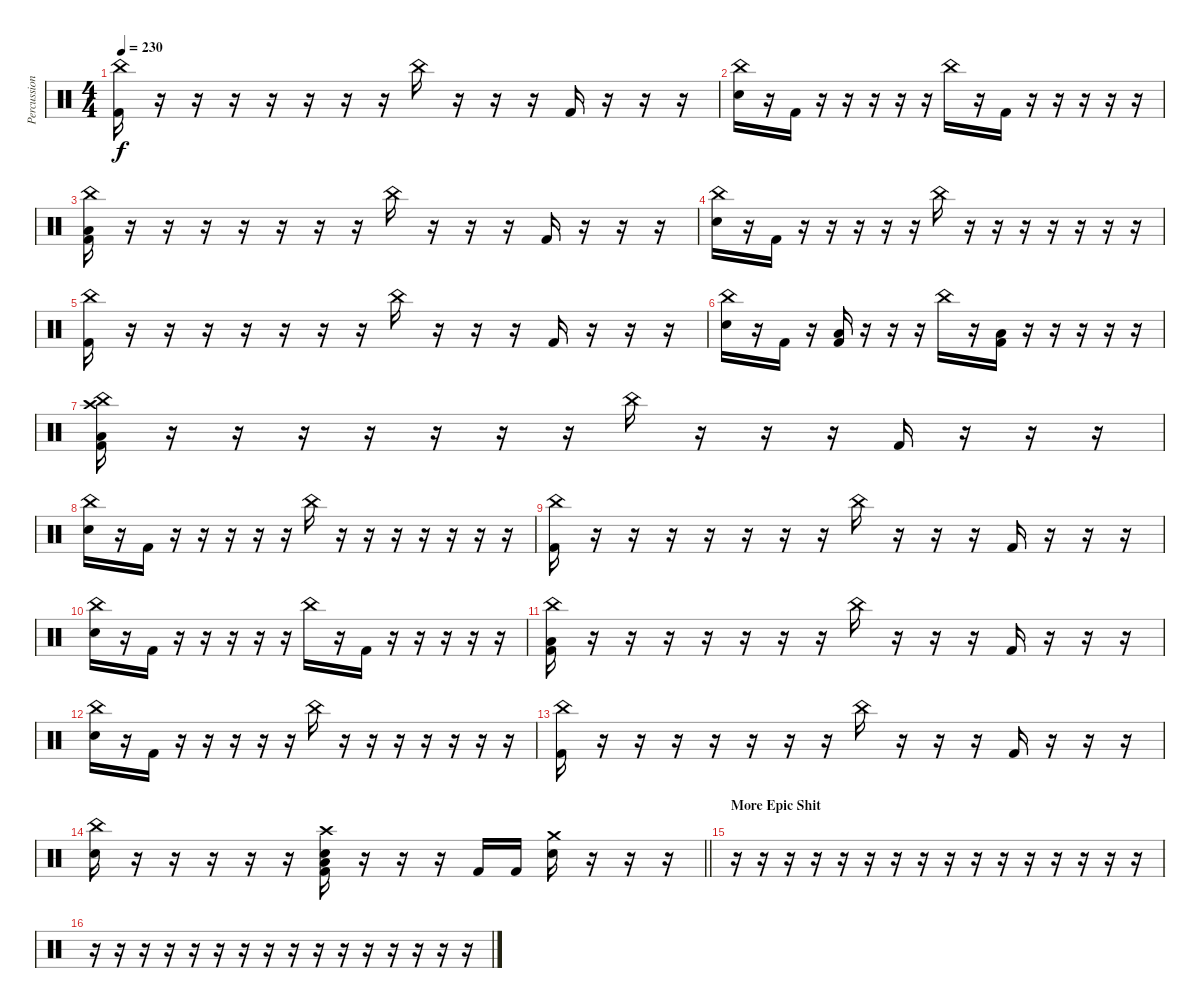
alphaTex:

\track ("Percussion" "Percussion") {instrument percussion}
\staff {score}
\articulation defaults
\ts (4 4)
\tempo 230
\clef neutral
\ks c
("China (hit)" "Kick (hit) 2").16{dy f} r.16 r.16 r.16 r.16 r.16 r.16 r.16 "China (hit)".16 r.16 r.16 r.16 "Kick (hit) 2".16 r.16 r.16 r.16 |
("China (hit)" "Electric Snare (hit)").16 r.16 "Kick (hit) 2".16 r.16 r.16 r.16 r.16 r.16 "China (hit)".16 r.16 "Kick (hit) 2".16 r.16 r.16 r.16 r.16 r.16 |
("China (hit)" "Low Floor Tom (hit)" "Kick (hit) 2").16 r.16 r.16 r.16 r.16 r.16 r.16 r.16 "China (hit)".16 r.16 r.16 r.16 "Kick (hit) 2".16 r.16 r.16 r.16 |
("China (hit)" "Electric Snare (hit)").16 r.16 "Kick (hit) 2".16 r.16 r.16 r.16 r.16 r.16 "China (hit)".16 r.16 r.16 r.16 r.16 r.16 r.16 r.16 |
("China (hit)" "Kick (hit) 2").16 r.16 r.16 r.16 r.16 r.16 r.16 r.16 "China (hit)".16 r.16 r.16 r.16 "Kick (hit) 2".16 r.16 r.16 r.16 |
("China (hit)" "Electric Snare (hit)").16 r.16 "Kick (hit) 2".16 r.16 ("Low Floor Tom (hit)" "Kick (hit) 2").16 r.16 r.16 r.16 "China (hit)".16 r.16 ("Low Floor Tom (hit)" "Kick (hit) 2").16 r.16 r.16 r.16 r.16 r.16 |
("China (hit)" "Crash high (hit)" "Low Floor Tom (hit)" "Kick (hit) 2").16 r.16 r.16 r.16 r.16 r.16 r.16 r.16 "China (hit)".16 r.16 r.16 r.16 "Kick (hit) 2".16 r.16 r.16 r.16 |
("China (hit)" "Electric Snare (hit)").16 r.16 "Kick (hit) 2".16 r.16 r.16 r.16 r.16 r.16 "China (hit)".16 r.16 r.16 r.16 r.16 r.16 r.16 r.16 |
("China (hit)" "Kick (hit) 2").16 r.16 r.16 r.16 r.16 r.16 r.16 r.16 "China (hit)".16 r.16 r.16 r.16 "Kick (hit) 2".16 r.16 r.16 r.16 |
("China (hit)" "Electric Snare (hit)").16 r.16 "Kick (hit) 2".16 r.16 r.16 r.16 r.16 r.16 "China (hit)".16 r.16 "Kick (hit) 2".16 r.16 r.16 r.16 r.16 r.16 |
("China (hit)" "Low Floor Tom (hit)" "Kick (hit) 2").16 r.16 r.16 r.16 r.16 r.16 r.16 r.16 "China (hit)".16 r.16 r.16 r.16 "Kick (hit) 2".16 r.16 r.16 r.16 |
("China (hit)" "Electric Snare (hit)").16 r.16 "Kick (hit) 2".16 r.16 r.16 r.16 r.16 r.16 "China (hit)".16 r.16 r.16 r.16 r.16 r.16 r.16 r.16 |
("China (hit)" "Kick (hit) 2").16 r.16 r.16 r.16 r.16 r.16 r.16 r.16 "China (hit)".16 r.16 r.16 r.16 "Kick (hit) 2".16 r.16 r.16 r.16 |
\barLineRight lightlight
("China (hit)" "Electric Snare (hit)").16 r.16 r.16 r.16 r.16 r.16 ("Crash high (hit)" "Electric Snare (hit)" "Low Floor Tom (hit)" "Kick (hit) 2").16 r.16 r.16 r.16 "Kick (hit) 2".16 "Kick (hit) 2".16 ("Crash medium (hit)" "Electric Snare (hit)").16 r.16 r.16 r.16 |
\section ("" "More Epic Shit")
r.16{volume 0} r.16 r.16 r.16 r.16 r.16 r.16 r.16 r.16 r.16 r.16 r.16 r.16 r.16 r.16 r.16 |
r.16 r.16 r.16 r.16 r.16 r.16 r.16 r.16 r.16 r.16 r.16 r.16 r.16 r.16 r.16 r.16
